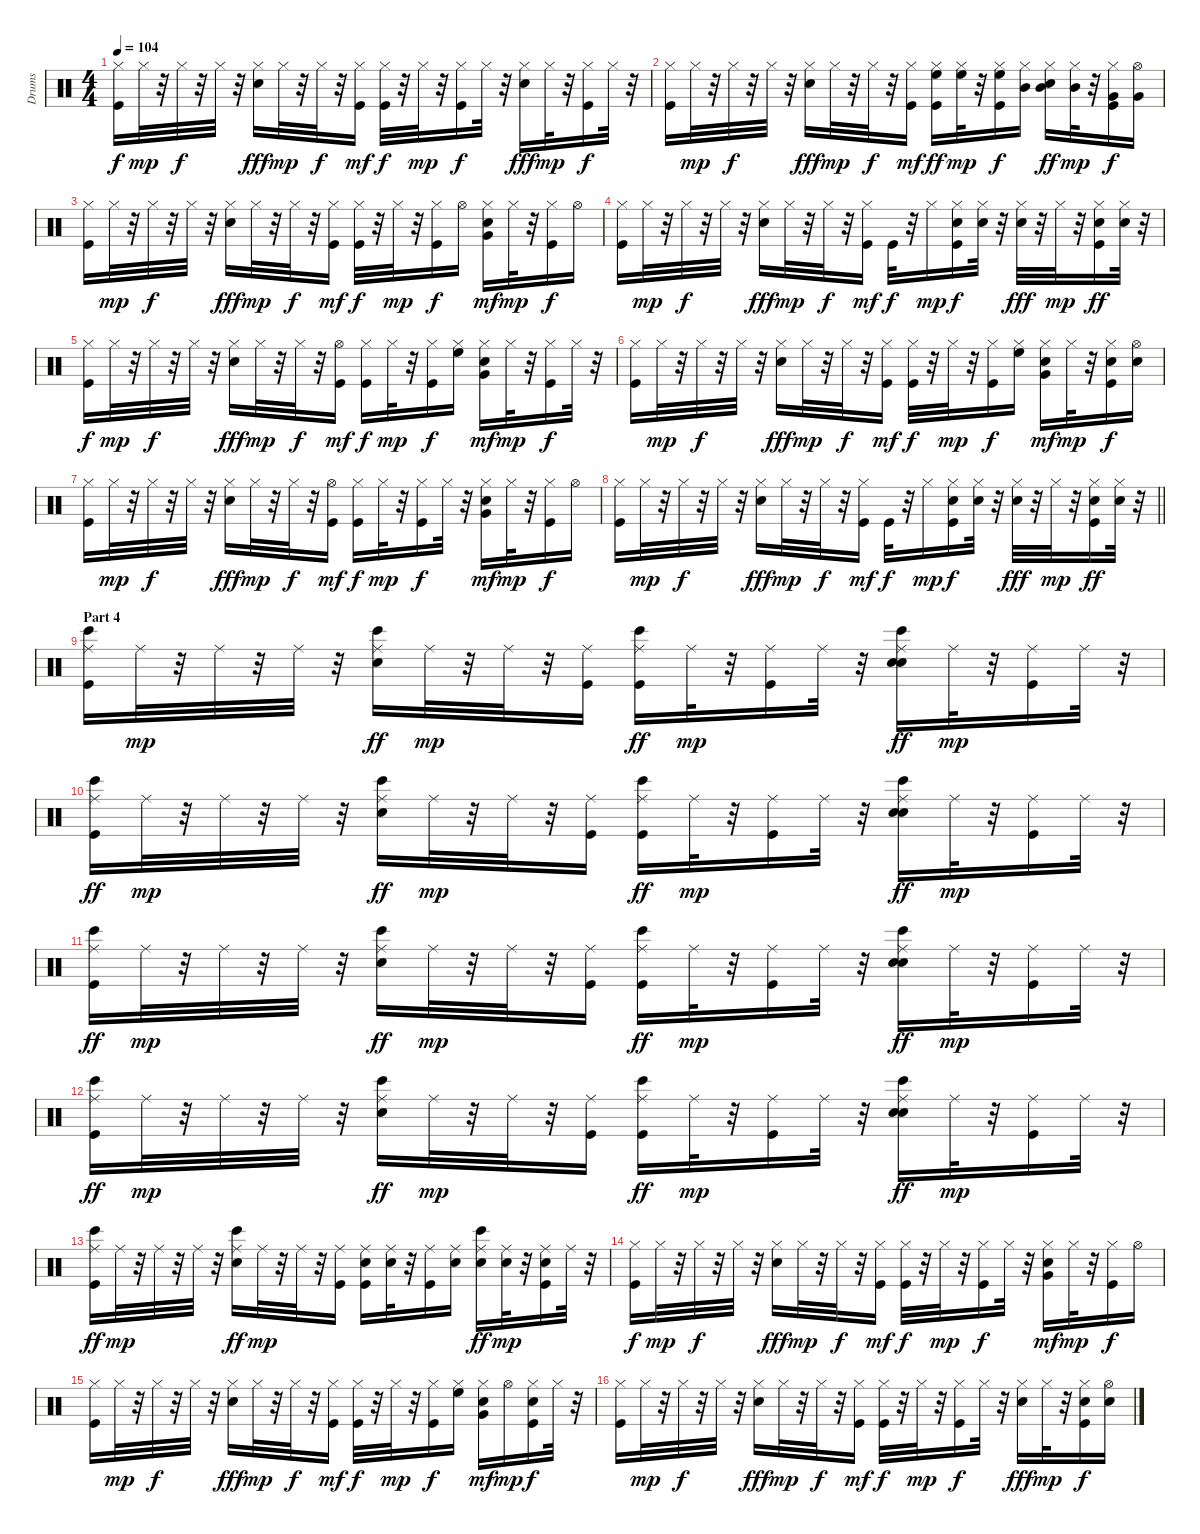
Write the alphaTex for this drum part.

\track ("Drums   " "Drums   ") {instrument percussion}
\staff {score}
\articulation defaults
\ts (4 4)
\tempo 104
\clef neutral
\ks c
("Kick (hit)" "Hi-Hat (closed)").16{dy f} "Hi-Hat (closed)".32{dy mp} r.32 "Hi-Hat (closed)".32{dy f} r.32 "Hi-Hat (closed)".32 r.32 ("Electric Snare (hit)" "Hi-Hat (closed)").16{dy fff} "Hi-Hat (closed)".32{dy mp} r.32 "Hi-Hat (closed)".32{dy f} r.32 ("Kick (hit)" "Hi-Hat (closed)").16{dy mf} ("Kick (hit)" "Hi-Hat (closed)").32{dy f} r.32 "Hi-Hat (closed)".32{dy mp} r.32 ("Kick (hit)" "Hi-Hat (closed)").16{dy f} "Hi-Hat (closed)".32 r.32 ("Electric Snare (hit)" "Hi-Hat (closed)").16{dy fff} "Hi-Hat (closed)".32{dy mp} r.32 ("Kick (hit)" "Hi-Hat (closed)").16{dy f} "Hi-Hat (closed)".32 r.32 |
("Kick (hit)" "Hi-Hat (closed)").16 "Hi-Hat (closed)".32{dy mp} r.32 "Hi-Hat (closed)".32{dy f} r.32 "Hi-Hat (closed)".32 r.32 ("Electric Snare (hit)" "Hi-Hat (closed)").16{dy fff} "Hi-Hat (closed)".32{dy mp} r.32 "Hi-Hat (closed)".32{dy f} r.32 ("Kick (hit)" "Hi-Hat (closed)").16{dy mf} ("Kick (hit)" "Hi-Hat (closed)" "High Floor Tom (hit)").16{dy ff} ("Hi-Hat (closed)" "High Floor Tom (hit)").32{dy mp} r.32 ("Kick (hit)" "Hi-Hat (closed)" "High Floor Tom (hit)").16{dy f} ("Hi-Hat (closed)" "Mid Tom (hit)").16 ("Electric Snare (hit)" "Hi-Hat (closed)" "Mid Tom (hit)").16{dy ff} ("Hi-Hat (closed)" "Mid Tom (hit)").32{dy mp} r.32 ("Kick (hit)" "Hi-Hat (closed)" "Very Low Tom (hit)").16{dy f} ("Very Low Tom (hit)" "Hi-Hat (open)").16 |
("Kick (hit)" "Hi-Hat (closed)").16 "Hi-Hat (closed)".32{dy mp} r.32 "Hi-Hat (closed)".32{dy f} r.32 "Hi-Hat (closed)".32 r.32 ("Electric Snare (hit)" "Hi-Hat (closed)").16{dy fff} "Hi-Hat (closed)".32{dy mp} r.32 "Hi-Hat (closed)".32{dy f} r.32 ("Kick (hit)" "Hi-Hat (closed)").16{dy mf} ("Kick (hit)" "Hi-Hat (closed)").32{dy f} r.32 "Hi-Hat (closed)".32{dy mp} r.32 ("Kick (hit)" "Hi-Hat (closed)").16{dy f} "Hi-Hat (open)".16 ("Electric Snare (hit)" "Hi-Hat (closed)" "Very Low Tom (hit)").16{dy mf} "Hi-Hat (closed)".32{dy mp} r.32 ("Kick (hit)" "Hi-Hat (closed)").16{dy f} "Hi-Hat (open)".16 |
("Kick (hit)" "Hi-Hat (closed)").16 "Hi-Hat (closed)".32{dy mp} r.32 "Hi-Hat (closed)".32{dy f} r.32 "Hi-Hat (closed)".32 r.32 ("Electric Snare (hit)" "Hi-Hat (closed)").16{dy fff} "Hi-Hat (closed)".32{dy mp} r.32 "Hi-Hat (closed)".32{dy f} r.32 ("Kick (hit)" "Hi-Hat (closed)").16{dy mf} "Kick (hit)".32{dy f} r.32 "Hi-Hat (closed)".16{dy mp} ("Kick (hit)" "Electric Snare (hit)" "Hi-Hat (closed)").16{dy f} ("Electric Snare (hit)" "Hi-Hat (closed)").32 r.32 ("Electric Snare (hit)" "Hi-Hat (closed)").32{dy fff} r.32 "Hi-Hat (closed)".32{dy mp} r.32 ("Kick (hit)" "Electric Snare (hit)" "Hi-Hat (closed)").16{dy ff} ("Electric Snare (hit)" "Hi-Hat (closed)").32 r.32 |
("Kick (hit)" "Hi-Hat (closed)").16{dy f} "Hi-Hat (closed)".32{dy mp} r.32 "Hi-Hat (closed)".32{dy f} r.32 "Hi-Hat (closed)".32 r.32 ("Electric Snare (hit)" "Hi-Hat (closed)").16{dy fff} "Hi-Hat (closed)".32{dy mp} r.32 "Hi-Hat (closed)".32{dy f} r.32 ("Kick (hit)" "Hi-Hat (open)").16{dy mf} ("Kick (hit)" "Hi-Hat (closed)").16{dy f} "Hi-Hat (closed)".32{dy mp} r.32 ("Kick (hit)" "Hi-Hat (closed)").16{dy f} ("Hi-Hat (closed)" "High Floor Tom (hit)").16 ("Electric Snare (hit)" "Hi-Hat (closed)" "Very Low Tom (hit)").16{dy mf} "Hi-Hat (closed)".32{dy mp} r.32 ("Kick (hit)" "Hi-Hat (closed)").16{dy f} "Hi-Hat (closed)".32 r.32 |
("Kick (hit)" "Hi-Hat (closed)").16 "Hi-Hat (closed)".32{dy mp} r.32 "Hi-Hat (closed)".32{dy f} r.32 "Hi-Hat (closed)".32 r.32 ("Electric Snare (hit)" "Hi-Hat (closed)").16{dy fff} "Hi-Hat (closed)".32{dy mp} r.32 "Hi-Hat (closed)".32{dy f} r.32 ("Kick (hit)" "Hi-Hat (closed)").16{dy mf} ("Kick (hit)" "Hi-Hat (closed)").32{dy f} r.32 "Hi-Hat (closed)".32{dy mp} r.32 ("Kick (hit)" "Hi-Hat (closed)").16{dy f} ("Hi-Hat (closed)" "High Floor Tom (hit)").16 ("Electric Snare (hit)" "Hi-Hat (closed)" "Very Low Tom (hit)").16{dy mf} "Hi-Hat (closed)".32{dy mp} r.32 ("Kick (hit)" "Electric Snare (hit)" "Hi-Hat (closed)").16{dy f} ("Electric Snare (hit)" "Hi-Hat (open)").16 |
("Kick (hit)" "Hi-Hat (closed)").16 "Hi-Hat (closed)".32{dy mp} r.32 "Hi-Hat (closed)".32{dy f} r.32 "Hi-Hat (closed)".32 r.32 ("Electric Snare (hit)" "Hi-Hat (closed)").16{dy fff} "Hi-Hat (closed)".32{dy mp} r.32 "Hi-Hat (closed)".32{dy f} r.32 ("Kick (hit)" "Hi-Hat (open)").16{dy mf} ("Kick (hit)" "Hi-Hat (closed)").16{dy f} "Hi-Hat (closed)".32{dy mp} r.32 ("Kick (hit)" "Hi-Hat (closed)").16{dy f} "Hi-Hat (closed)".32 r.32 ("Electric Snare (hit)" "Hi-Hat (closed)" "Very Low Tom (hit)").16{dy mf} "Hi-Hat (closed)".32{dy mp} r.32 ("Kick (hit)" "Hi-Hat (closed)").16{dy f} "Hi-Hat (open)".16 |
\barLineRight lightlight
("Kick (hit)" "Hi-Hat (closed)").16 "Hi-Hat (closed)".32{dy mp} r.32 "Hi-Hat (closed)".32{dy f} r.32 "Hi-Hat (closed)".32 r.32 ("Electric Snare (hit)" "Hi-Hat (closed)").16{dy fff} "Hi-Hat (closed)".32{dy mp} r.32 "Hi-Hat (closed)".32{dy f} r.32 ("Kick (hit)" "Hi-Hat (closed)").16{dy mf} "Kick (hit)".32{dy f} r.32 "Hi-Hat (closed)".16{dy mp} ("Kick (hit)" "Electric Snare (hit)" "Hi-Hat (closed)").16{dy f} ("Electric Snare (hit)" "Hi-Hat (closed)").32 r.32 ("Electric Snare (hit)" "Hi-Hat (closed)").32{dy fff} r.32 "Hi-Hat (closed)".32{dy mp} r.32 ("Kick (hit)" "Electric Snare (hit)" "Hi-Hat (closed)").16{dy ff} ("Electric Snare (hit)" "Hi-Hat (closed)").32 r.32 |
\section ("" "Part 4")
("Kick (hit)" "Ride (middle)" "Bongo High (hit)").16 "Ride (middle)".32{dy mp} r.32 "Ride (middle)".32 r.32 "Ride (middle)".32 r.32 ("Electric Snare (hit)" "Ride (middle)" "Bongo High (hit)").16{dy ff} "Ride (middle)".32{dy mp} r.32 "Ride (middle)".32 r.32 ("Kick (hit)" "Ride (middle)").16 ("Kick (hit)" "Ride (middle)" "Bongo High (hit)").16{dy ff} "Ride (middle)".32{dy mp} r.32 ("Kick (hit)" "Ride (middle)").16 "Ride (middle)".32 r.32 ("Hand Clap (hit)" "Electric Snare (hit)" "Ride (middle)" "Bongo High (hit)").16{dy ff} "Ride (middle)".32{dy mp} r.32 ("Kick (hit)" "Ride (middle)").16 "Ride (middle)".32 r.32 |
("Kick (hit)" "Ride (middle)" "Bongo High (hit)").16{dy ff} "Ride (middle)".32{dy mp} r.32 "Ride (middle)".32 r.32 "Ride (middle)".32 r.32 ("Electric Snare (hit)" "Ride (middle)" "Bongo High (hit)").16{dy ff} "Ride (middle)".32{dy mp} r.32 "Ride (middle)".32 r.32 ("Kick (hit)" "Ride (middle)").16 ("Kick (hit)" "Ride (middle)" "Bongo High (hit)").16{dy ff} "Ride (middle)".32{dy mp} r.32 ("Kick (hit)" "Ride (middle)").16 "Ride (middle)".32 r.32 ("Hand Clap (hit)" "Electric Snare (hit)" "Ride (middle)" "Bongo High (hit)").16{dy ff} "Ride (middle)".32{dy mp} r.32 ("Kick (hit)" "Ride (middle)").16 "Ride (middle)".32 r.32 |
("Kick (hit)" "Ride (middle)" "Bongo High (hit)").16{dy ff} "Ride (middle)".32{dy mp} r.32 "Ride (middle)".32 r.32 "Ride (middle)".32 r.32 ("Electric Snare (hit)" "Ride (middle)" "Bongo High (hit)").16{dy ff} "Ride (middle)".32{dy mp} r.32 "Ride (middle)".32 r.32 ("Kick (hit)" "Ride (middle)").16 ("Kick (hit)" "Ride (middle)" "Bongo High (hit)").16{dy ff} "Ride (middle)".32{dy mp} r.32 ("Kick (hit)" "Ride (middle)").16 "Ride (middle)".32 r.32 ("Hand Clap (hit)" "Electric Snare (hit)" "Ride (middle)" "Bongo High (hit)").16{dy ff} "Ride (middle)".32{dy mp} r.32 ("Kick (hit)" "Ride (middle)").16 "Ride (middle)".32 r.32 |
("Kick (hit)" "Ride (middle)" "Bongo High (hit)").16{dy ff} "Ride (middle)".32{dy mp} r.32 "Ride (middle)".32 r.32 "Ride (middle)".32 r.32 ("Electric Snare (hit)" "Ride (middle)" "Bongo High (hit)").16{dy ff} "Ride (middle)".32{dy mp} r.32 "Ride (middle)".32 r.32 ("Kick (hit)" "Ride (middle)").16 ("Kick (hit)" "Ride (middle)" "Bongo High (hit)").16{dy ff} "Ride (middle)".32{dy mp} r.32 ("Kick (hit)" "Ride (middle)").16 "Ride (middle)".32 r.32 ("Hand Clap (hit)" "Electric Snare (hit)" "Ride (middle)" "Bongo High (hit)").16{dy ff} "Ride (middle)".32{dy mp} r.32 ("Kick (hit)" "Ride (middle)").16 "Ride (middle)".32 r.32 |
("Kick (hit)" "Ride (middle)" "Bongo High (hit)").16{dy ff} "Ride (middle)".32{dy mp} r.32 "Ride (middle)".32 r.32 "Ride (middle)".32 r.32 ("Electric Snare (hit)" "Ride (middle)" "Bongo High (hit)").16{dy ff} "Ride (middle)".32{dy mp} r.32 "Ride (middle)".32 r.32 ("Kick (hit)" "Ride (middle)").16 ("Kick (hit)" "Electric Snare (hit)" "Ride (middle)").16 ("Electric Snare (hit)" "Ride (middle)").32 r.32 ("Kick (hit)" "Ride (middle)").16 ("Electric Snare (hit)" "Ride (middle)").16 ("Electric Snare (hit)" "Ride (middle)" "Bongo High (hit)").16{dy ff} ("Electric Snare (hit)" "Ride (middle)").32{dy mp} r.32 ("Kick (hit)" "Electric Snare (hit)" "Ride (middle)").16 "Ride (middle)".32 r.32 |
("Kick (hit)" "Hi-Hat (closed)").16{dy f} "Hi-Hat (closed)".32{dy mp} r.32 "Hi-Hat (closed)".32{dy f} r.32 "Hi-Hat (closed)".32 r.32 ("Electric Snare (hit)" "Hi-Hat (closed)").16{dy fff} "Hi-Hat (closed)".32{dy mp} r.32 "Hi-Hat (closed)".32{dy f} r.32 ("Kick (hit)" "Hi-Hat (closed)").16{dy mf} ("Kick (hit)" "Hi-Hat (closed)").32{dy f} r.32 "Hi-Hat (closed)".32{dy mp} r.32 ("Kick (hit)" "Hi-Hat (closed)").16{dy f} "Hi-Hat (closed)".32 r.32 ("Electric Snare (hit)" "Hi-Hat (closed)" "Very Low Tom (hit)").16{dy mf} "Hi-Hat (closed)".32{dy mp} r.32 ("Kick (hit)" "Hi-Hat (closed)").16{dy f} "Hi-Hat (open)".16 |
("Kick (hit)" "Hi-Hat (closed)").16 "Hi-Hat (closed)".32{dy mp} r.32 "Hi-Hat (closed)".32{dy f} r.32 "Hi-Hat (closed)".32 r.32 ("Electric Snare (hit)" "Hi-Hat (closed)").16{dy fff} "Hi-Hat (closed)".32{dy mp} r.32 "Hi-Hat (closed)".32{dy f} r.32 ("Kick (hit)" "Hi-Hat (closed)").16{dy mf} ("Kick (hit)" "Hi-Hat (closed)").32{dy f} r.32 "Hi-Hat (closed)".32{dy mp} r.32 ("Kick (hit)" "Hi-Hat (closed)").16{dy f} ("Hi-Hat (closed)" "High Floor Tom (hit)").16 ("Electric Snare (hit)" "Hi-Hat (closed)" "Very Low Tom (hit)").16{dy mf} "Hi-Hat (open)".16{dy mp} ("Kick (hit)" "Electric Snare (hit)" "Hi-Hat (closed)").16{dy f} "Hi-Hat (closed)".32 r.32 |
("Kick (hit)" "Hi-Hat (closed)").16 "Hi-Hat (closed)".32{dy mp} r.32 "Hi-Hat (closed)".32{dy f} r.32 "Hi-Hat (closed)".32 r.32 ("Electric Snare (hit)" "Hi-Hat (closed)").16{dy fff} "Hi-Hat (closed)".32{dy mp} r.32 "Hi-Hat (closed)".32{dy f} r.32 ("Kick (hit)" "Hi-Hat (closed)").16{dy mf} ("Kick (hit)" "Hi-Hat (closed)").32{dy f} r.32 "Hi-Hat (closed)".32{dy mp} r.32 ("Kick (hit)" "Hi-Hat (closed)").16{dy f} "Hi-Hat (closed)".32 r.32 ("Electric Snare (hit)" "Hi-Hat (closed)").16{dy fff} "Hi-Hat (closed)".32{dy mp} r.32 ("Kick (hit)" "Electric Snare (hit)" "Hi-Hat (closed)").16{dy f} ("Electric Snare (hit)" "Hi-Hat (open)").16
